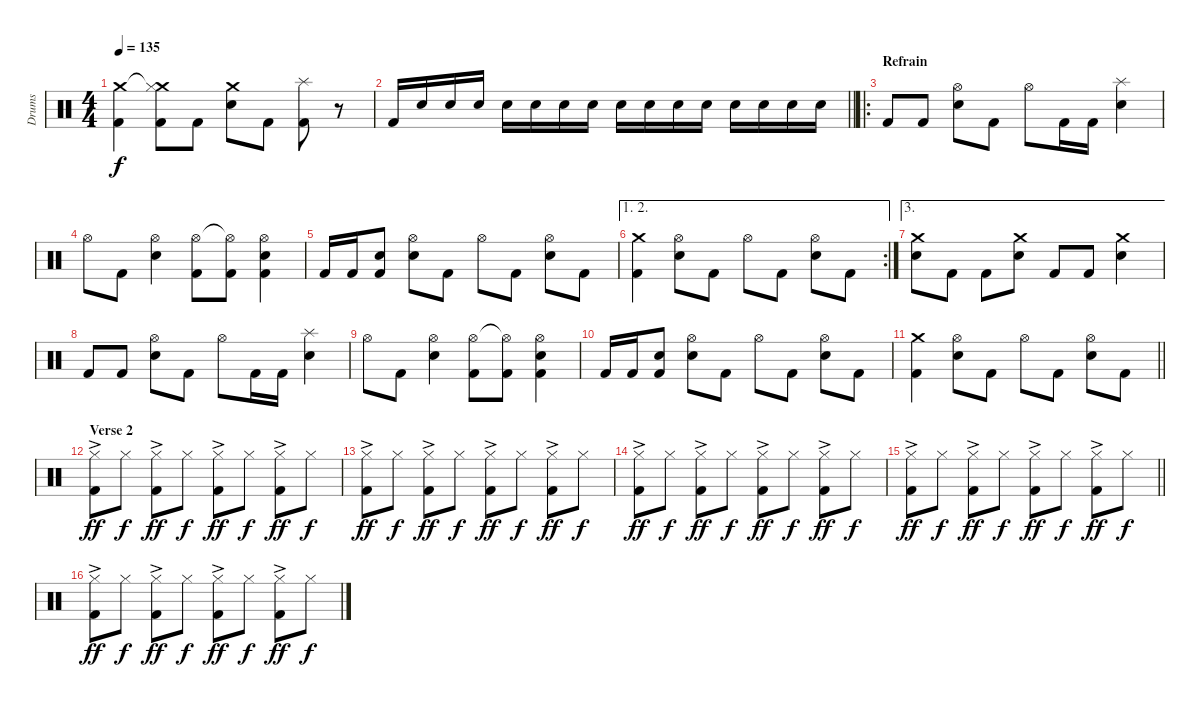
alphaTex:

\track ("Drums" "Drums") {instrument percussion}
\staff {score}
\articulation defaults
\ts (4 4)
\tempo 135
\clef neutral
\ks c
("Crash medium (hit)" "Kick (hit) 2").4{dy f} ("Crash medium (hit)"{t} "Hi-Hat (closed)" "Kick (hit) 2"{t}).8 "Kick (hit) 2".8 ("Crash medium (hit)" "Snare (hit) 2").8 "Kick (hit) 2".8 ("Splash (hit)" "Kick (hit) 2").8 r.8 |
\barLineRight lightlight "Kick (hit) 2".16 "Snare (hit) 2".16 "Snare (hit) 2".16 "Snare (hit) 2".16 "Snare (hit) 2".16 "Snare (hit) 2".16 "Snare (hit) 2".16 "Snare (hit) 2".16 "Snare (hit) 2".16 "Snare (hit) 2".16 "Snare (hit) 2".16 "Snare (hit) 2".16 "Snare (hit) 2".16 "Snare (hit) 2".16 "Snare (hit) 2".16 "Snare (hit) 2".16
|
\ro
\section ("" "Refrain")
"Kick (hit) 2".8 "Kick (hit) 2".8 ("Hi-Hat (open)" "Snare (hit) 2").8 "Kick (hit) 2".8 "Hi-Hat (open)".8 "Kick (hit) 2".16 "Kick (hit) 2".16 ("Splash (hit)" "Snare (hit) 2").4 |
"Hi-Hat (open)".8 "Kick (hit) 2".8 ("Hi-Hat (open)" "Snare (hit) 2").4 ("Hi-Hat (open)" "Kick (hit) 2").8 ("Hi-Hat (open)"{t} "Kick (hit) 2").8 ("Hi-Hat (open)" "Snare (hit) 2" "Kick (hit) 2").4 |
"Kick (hit) 2".16 "Kick (hit) 2".16 ("Snare (hit) 2" "Kick (hit) 2").8 ("Hi-Hat (open)" "Snare (hit) 2").8 "Kick (hit) 2".8 "Hi-Hat (open)".8 "Kick (hit) 2".8 ("Hi-Hat (open)" "Snare (hit) 2").8 "Kick (hit) 2".8 |
\ae (1 2)
\rc 2
("Crash medium (hit)" "Kick (hit) 2").4 ("Hi-Hat (open)" "Snare (hit) 2").8 "Kick (hit) 2".8 "Hi-Hat (open)".8 "Kick (hit) 2".8 ("Hi-Hat (open)" "Snare (hit) 2").8 "Kick (hit) 2".8 |
\ae 3
("Crash medium (hit)" "Snare (hit) 2").8 "Kick (hit) 2".8 "Kick (hit) 2".8 ("Crash medium (hit)" "Snare (hit) 2").8 "Kick (hit) 2".8 "Kick (hit) 2".8 ("Crash medium (hit)" "Snare (hit) 2").4 |
"Kick (hit) 2".8 "Kick (hit) 2".8 ("Hi-Hat (open)" "Snare (hit) 2").8 "Kick (hit) 2".8 "Hi-Hat (open)".8 "Kick (hit) 2".16 "Kick (hit) 2".16 ("Splash (hit)" "Snare (hit) 2").4 |
"Hi-Hat (open)".8 "Kick (hit) 2".8 ("Hi-Hat (open)" "Snare (hit) 2").4 ("Hi-Hat (open)" "Kick (hit) 2").8 ("Hi-Hat (open)"{t} "Kick (hit) 2").8 ("Hi-Hat (open)" "Snare (hit) 2" "Kick (hit) 2").4 |
"Kick (hit) 2".16 "Kick (hit) 2".16 ("Snare (hit) 2" "Kick (hit) 2").8 ("Hi-Hat (open)" "Snare (hit) 2").8 "Kick (hit) 2".8 "Hi-Hat (open)".8 "Kick (hit) 2".8 ("Hi-Hat (open)" "Snare (hit) 2").8 "Kick (hit) 2".8 |
\barLineRight lightlight
("Crash medium (hit)" "Kick (hit) 2").4 ("Hi-Hat (open)" "Snare (hit) 2").8 "Kick (hit) 2".8 "Hi-Hat (open)".8 "Kick (hit) 2".8 ("Hi-Hat (open)" "Snare (hit) 2").8 "Kick (hit) 2".8 |
\section ("" "Verse 2")
("Hi-Hat (closed)"{ac} "Kick (hit) 2").8{dy ff} "Hi-Hat (closed)".8{dy f} ("Hi-Hat (closed)"{ac} "Kick (hit) 2").8{dy ff} "Hi-Hat (closed)".8{dy f} ("Hi-Hat (closed)"{ac} "Kick (hit) 2").8{dy ff} "Hi-Hat (closed)".8{dy f} ("Hi-Hat (closed)"{ac} "Kick (hit) 2").8{dy ff} "Hi-Hat (closed)".8{dy f} |
("Hi-Hat (closed)"{ac} "Kick (hit) 2").8{dy ff} "Hi-Hat (closed)".8{dy f} ("Hi-Hat (closed)"{ac} "Kick (hit) 2").8{dy ff} "Hi-Hat (closed)".8{dy f} ("Hi-Hat (closed)"{ac} "Kick (hit) 2").8{dy ff} "Hi-Hat (closed)".8{dy f} ("Hi-Hat (closed)"{ac} "Kick (hit) 2").8{dy ff} "Hi-Hat (closed)".8{dy f} |
("Hi-Hat (closed)"{ac} "Kick (hit) 2").8{dy ff} "Hi-Hat (closed)".8{dy f} ("Hi-Hat (closed)"{ac} "Kick (hit) 2").8{dy ff} "Hi-Hat (closed)".8{dy f} ("Hi-Hat (closed)"{ac} "Kick (hit) 2").8{dy ff} "Hi-Hat (closed)".8{dy f} ("Hi-Hat (closed)"{ac} "Kick (hit) 2").8{dy ff} "Hi-Hat (closed)".8{dy f} |
\barLineRight lightlight
("Hi-Hat (closed)"{ac} "Kick (hit) 2").8{dy ff} "Hi-Hat (closed)".8{dy f} ("Hi-Hat (closed)"{ac} "Kick (hit) 2").8{dy ff} "Hi-Hat (closed)".8{dy f} ("Hi-Hat (closed)"{ac} "Kick (hit) 2").8{dy ff} "Hi-Hat (closed)".8{dy f} ("Hi-Hat (closed)"{ac} "Kick (hit) 2").8{dy ff} "Hi-Hat (closed)".8{dy f} |
("Hi-Hat (closed)"{ac} "Kick (hit) 2").8{dy ff} "Hi-Hat (closed)".8{dy f} ("Hi-Hat (closed)"{ac} "Kick (hit) 2").8{dy ff} "Hi-Hat (closed)".8{dy f} ("Hi-Hat (closed)"{ac} "Kick (hit) 2").8{dy ff} "Hi-Hat (closed)".8{dy f} ("Hi-Hat (closed)"{ac} "Kick (hit) 2").8{dy ff} "Hi-Hat (closed)".8{dy f}
